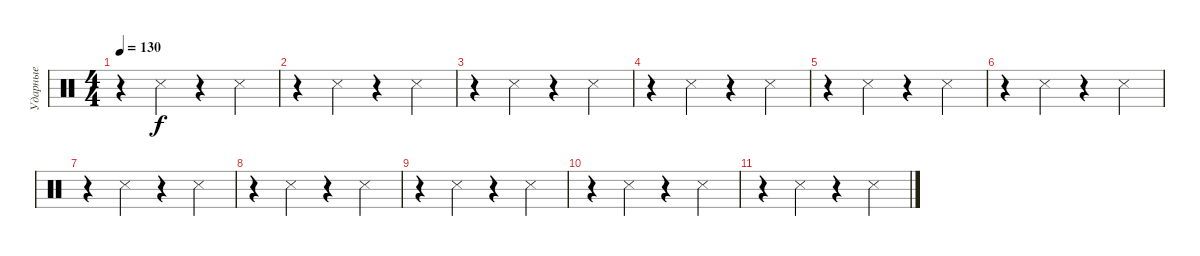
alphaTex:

\track ("Ударные" "Ударные") {instrument percussion}
\staff {score}
\articulation defaults
\ts (4 4)
\tempo 130
\clef neutral
\ks c
r.4{dy f} "Snare (side stick) 3".4 r.4 "Snare (side stick) 3".4 |
r.4 "Snare (side stick) 3".4 r.4 "Snare (side stick) 3".4 |
r.4 "Snare (side stick) 3".4 r.4 "Snare (side stick) 3".4 |
r.4 "Snare (side stick) 3".4 r.4 "Snare (side stick) 3".4 |
r.4 "Snare (side stick) 3".4 r.4 "Snare (side stick) 3".4 |
r.4 "Snare (side stick) 3".4 r.4 "Snare (side stick) 3".4 |
r.4 "Snare (side stick) 3".4 r.4 "Snare (side stick) 3".4 |
r.4 "Snare (side stick) 3".4 r.4 "Snare (side stick) 3".4 |
r.4 "Snare (side stick) 3".4 r.4 "Snare (side stick) 3".4 |
r.4 "Snare (side stick) 3".4 r.4 "Snare (side stick) 3".4 |
r.4 "Snare (side stick) 3".4 r.4 "Snare (side stick) 3".4
